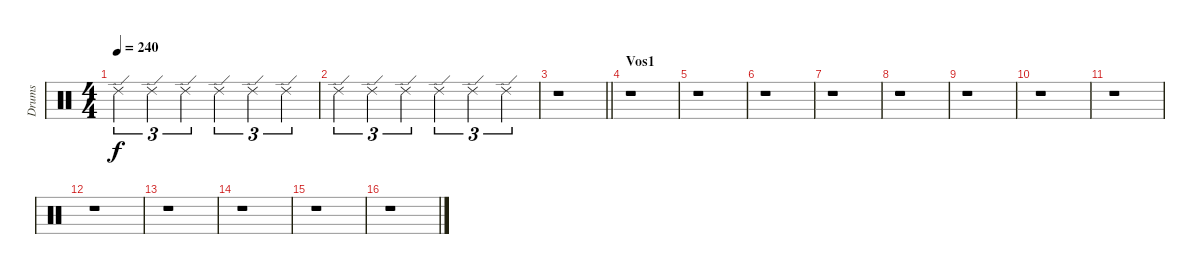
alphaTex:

\track ("Drums" "Drums") {instrument percussion}
\staff {score}
\articulation defaults
\ts (4 4)
\tempo 240
\clef neutral
\ks c "Ride (edge) 2".4{tu (3 2) dy f} "Ride (edge) 2".4{tu (3 2)} "Ride (edge) 2".4{tu (3 2)} "Ride (edge) 2".4{tu (3 2)} "Ride (edge) 2".4{tu (3 2)} "Ride (edge) 2".4{tu (3 2)}
|
"Ride (edge) 2".4{tu (3 2)} "Ride (edge) 2".4{tu (3 2)} "Ride (edge) 2".4{tu (3 2)} "Ride (edge) 2".4{tu (3 2)} "Ride (edge) 2".4{tu (3 2)} "Ride (edge) 2".4{tu (3 2)} |
\barLineRight lightlight
r.1 |
\section ("" "Vos1")
r.1 |
r.1 |
r.1 |
r.1 |
r.1 |
r.1 |
r.1 |
r.1 |
r.1 |
r.1 |
r.1 |
r.1 |
r.1
